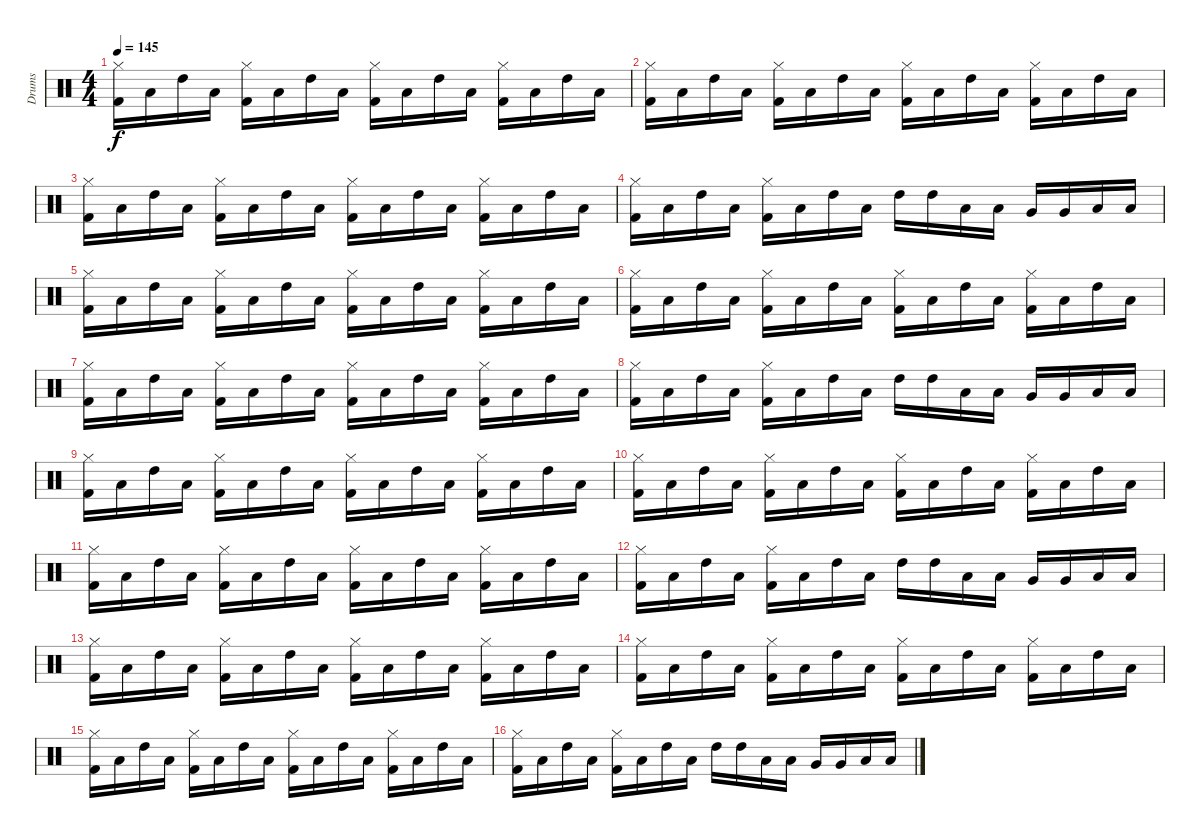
\track ("Drums" "Drums") {instrument percussion}
\staff {score}
\articulation defaults
\ts (4 4)
\tempo 145
\clef neutral
\ks c
("Hi-Hat (closed)" "Kick (hit) 2").16{dy f} "Low Tom (hit)".16 "High Tom (hit)".16 "Low Tom (hit)".16 ("Hi-Hat (closed)" "Kick (hit) 2").16 "Low Tom (hit)".16 "High Tom (hit)".16 "Low Tom (hit)".16 ("Hi-Hat (closed)" "Kick (hit) 2").16 "Low Tom (hit)".16 "High Tom (hit)".16 "Low Tom (hit)".16 ("Hi-Hat (closed)" "Kick (hit) 2").16 "Low Tom (hit)".16 "High Tom (hit)".16 "Low Tom (hit)".16 |
("Hi-Hat (closed)" "Kick (hit) 2").16 "Low Tom (hit)".16 "High Tom (hit)".16 "Low Tom (hit)".16 ("Hi-Hat (closed)" "Kick (hit) 2").16 "Low Tom (hit)".16 "High Tom (hit)".16 "Low Tom (hit)".16 ("Hi-Hat (closed)" "Kick (hit) 2").16 "Low Tom (hit)".16 "High Tom (hit)".16 "Low Tom (hit)".16 ("Hi-Hat (closed)" "Kick (hit) 2").16 "Low Tom (hit)".16 "High Tom (hit)".16 "Low Tom (hit)".16 |
("Hi-Hat (closed)" "Kick (hit) 2").16 "Low Tom (hit)".16 "High Tom (hit)".16 "Low Tom (hit)".16 ("Hi-Hat (closed)" "Kick (hit) 2").16 "Low Tom (hit)".16 "High Tom (hit)".16 "Low Tom (hit)".16 ("Hi-Hat (closed)" "Kick (hit) 2").16 "Low Tom (hit)".16 "High Tom (hit)".16 "Low Tom (hit)".16 ("Hi-Hat (closed)" "Kick (hit) 2").16 "Low Tom (hit)".16 "High Tom (hit)".16 "Low Tom (hit)".16 |
("Hi-Hat (closed)" "Kick (hit) 2").16 "Low Tom (hit)".16 "High Tom (hit)".16 "Low Tom (hit)".16 ("Hi-Hat (closed)" "Kick (hit) 2").16 "Low Tom (hit)".16 "High Tom (hit)".16 "Low Tom (hit)".16 "High Tom (hit)".16 "High Tom (hit)".16 "Low Tom (hit)".16 "Low Tom (hit)".16 "Very Low Tom (hit)".16 "Very Low Tom (hit)".16 "Low Floor Tom (hit)".16 "Low Floor Tom (hit)".16 |
("Hi-Hat (closed)" "Kick (hit) 2").16 "Low Tom (hit)".16 "High Tom (hit)".16 "Low Tom (hit)".16 ("Hi-Hat (closed)" "Kick (hit) 2").16 "Low Tom (hit)".16 "High Tom (hit)".16 "Low Tom (hit)".16 ("Hi-Hat (closed)" "Kick (hit) 2").16 "Low Tom (hit)".16 "High Tom (hit)".16 "Low Tom (hit)".16 ("Hi-Hat (closed)" "Kick (hit) 2").16 "Low Tom (hit)".16 "High Tom (hit)".16 "Low Tom (hit)".16 |
("Hi-Hat (closed)" "Kick (hit) 2").16 "Low Tom (hit)".16 "High Tom (hit)".16 "Low Tom (hit)".16 ("Hi-Hat (closed)" "Kick (hit) 2").16 "Low Tom (hit)".16 "High Tom (hit)".16 "Low Tom (hit)".16 ("Hi-Hat (closed)" "Kick (hit) 2").16 "Low Tom (hit)".16 "High Tom (hit)".16 "Low Tom (hit)".16 ("Hi-Hat (closed)" "Kick (hit) 2").16 "Low Tom (hit)".16 "High Tom (hit)".16 "Low Tom (hit)".16 |
("Hi-Hat (closed)" "Kick (hit) 2").16 "Low Tom (hit)".16 "High Tom (hit)".16 "Low Tom (hit)".16 ("Hi-Hat (closed)" "Kick (hit) 2").16 "Low Tom (hit)".16 "High Tom (hit)".16 "Low Tom (hit)".16 ("Hi-Hat (closed)" "Kick (hit) 2").16 "Low Tom (hit)".16 "High Tom (hit)".16 "Low Tom (hit)".16 ("Hi-Hat (closed)" "Kick (hit) 2").16 "Low Tom (hit)".16 "High Tom (hit)".16 "Low Tom (hit)".16 |
("Hi-Hat (closed)" "Kick (hit) 2").16 "Low Tom (hit)".16 "High Tom (hit)".16 "Low Tom (hit)".16 ("Hi-Hat (closed)" "Kick (hit) 2").16 "Low Tom (hit)".16 "High Tom (hit)".16 "Low Tom (hit)".16 "High Tom (hit)".16 "High Tom (hit)".16 "Low Tom (hit)".16 "Low Tom (hit)".16 "Very Low Tom (hit)".16 "Very Low Tom (hit)".16 "Low Floor Tom (hit)".16 "Low Floor Tom (hit)".16 |
("Hi-Hat (closed)" "Kick (hit) 2").16 "Low Tom (hit)".16 "High Tom (hit)".16 "Low Tom (hit)".16 ("Hi-Hat (closed)" "Kick (hit) 2").16 "Low Tom (hit)".16 "High Tom (hit)".16 "Low Tom (hit)".16 ("Hi-Hat (closed)" "Kick (hit) 2").16 "Low Tom (hit)".16 "High Tom (hit)".16 "Low Tom (hit)".16 ("Hi-Hat (closed)" "Kick (hit) 2").16 "Low Tom (hit)".16 "High Tom (hit)".16 "Low Tom (hit)".16 |
("Hi-Hat (closed)" "Kick (hit) 2").16 "Low Tom (hit)".16 "High Tom (hit)".16 "Low Tom (hit)".16 ("Hi-Hat (closed)" "Kick (hit) 2").16 "Low Tom (hit)".16 "High Tom (hit)".16 "Low Tom (hit)".16 ("Hi-Hat (closed)" "Kick (hit) 2").16 "Low Tom (hit)".16 "High Tom (hit)".16 "Low Tom (hit)".16 ("Hi-Hat (closed)" "Kick (hit) 2").16 "Low Tom (hit)".16 "High Tom (hit)".16 "Low Tom (hit)".16 |
("Hi-Hat (closed)" "Kick (hit) 2").16 "Low Tom (hit)".16 "High Tom (hit)".16 "Low Tom (hit)".16 ("Hi-Hat (closed)" "Kick (hit) 2").16 "Low Tom (hit)".16 "High Tom (hit)".16 "Low Tom (hit)".16 ("Hi-Hat (closed)" "Kick (hit) 2").16 "Low Tom (hit)".16 "High Tom (hit)".16 "Low Tom (hit)".16 ("Hi-Hat (closed)" "Kick (hit) 2").16 "Low Tom (hit)".16 "High Tom (hit)".16 "Low Tom (hit)".16 |
("Hi-Hat (closed)" "Kick (hit) 2").16 "Low Tom (hit)".16 "High Tom (hit)".16 "Low Tom (hit)".16 ("Hi-Hat (closed)" "Kick (hit) 2").16 "Low Tom (hit)".16 "High Tom (hit)".16 "Low Tom (hit)".16 "High Tom (hit)".16 "High Tom (hit)".16 "Low Tom (hit)".16 "Low Tom (hit)".16 "Very Low Tom (hit)".16 "Very Low Tom (hit)".16 "Low Floor Tom (hit)".16 "Low Floor Tom (hit)".16 |
("Hi-Hat (closed)" "Kick (hit) 2").16 "Low Tom (hit)".16 "High Tom (hit)".16 "Low Tom (hit)".16 ("Hi-Hat (closed)" "Kick (hit) 2").16 "Low Tom (hit)".16 "High Tom (hit)".16 "Low Tom (hit)".16 ("Hi-Hat (closed)" "Kick (hit) 2").16 "Low Tom (hit)".16 "High Tom (hit)".16 "Low Tom (hit)".16 ("Hi-Hat (closed)" "Kick (hit) 2").16 "Low Tom (hit)".16 "High Tom (hit)".16 "Low Tom (hit)".16 |
("Hi-Hat (closed)" "Kick (hit) 2").16 "Low Tom (hit)".16 "High Tom (hit)".16 "Low Tom (hit)".16 ("Hi-Hat (closed)" "Kick (hit) 2").16 "Low Tom (hit)".16 "High Tom (hit)".16 "Low Tom (hit)".16 ("Hi-Hat (closed)" "Kick (hit) 2").16 "Low Tom (hit)".16 "High Tom (hit)".16 "Low Tom (hit)".16 ("Hi-Hat (closed)" "Kick (hit) 2").16 "Low Tom (hit)".16 "High Tom (hit)".16 "Low Tom (hit)".16 |
("Hi-Hat (closed)" "Kick (hit) 2").16 "Low Tom (hit)".16 "High Tom (hit)".16 "Low Tom (hit)".16 ("Hi-Hat (closed)" "Kick (hit) 2").16 "Low Tom (hit)".16 "High Tom (hit)".16 "Low Tom (hit)".16 ("Hi-Hat (closed)" "Kick (hit) 2").16 "Low Tom (hit)".16 "High Tom (hit)".16 "Low Tom (hit)".16 ("Hi-Hat (closed)" "Kick (hit) 2").16 "Low Tom (hit)".16 "High Tom (hit)".16 "Low Tom (hit)".16 |
("Hi-Hat (closed)" "Kick (hit) 2").16 "Low Tom (hit)".16 "High Tom (hit)".16 "Low Tom (hit)".16 ("Hi-Hat (closed)" "Kick (hit) 2").16 "Low Tom (hit)".16 "High Tom (hit)".16 "Low Tom (hit)".16 "High Tom (hit)".16 "High Tom (hit)".16 "Low Tom (hit)".16 "Low Tom (hit)".16 "Very Low Tom (hit)".16 "Very Low Tom (hit)".16 "Low Floor Tom (hit)".16 "Low Floor Tom (hit)".16
